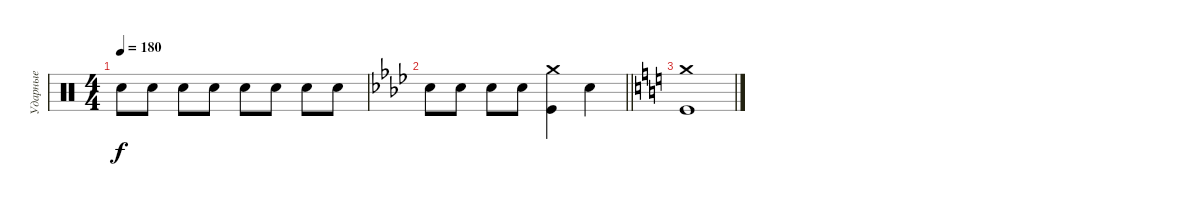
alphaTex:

\track ("Ударные" "Ударные") {instrument percussion}
\staff {score}
\articulation defaults
\ts (4 4)
\tempo 180
\clef neutral
\ks c "Electric Snare (hit)".8{dy f} "Electric Snare (hit)".8 "Electric Snare (hit)".8 "Electric Snare (hit)".8 "Electric Snare (hit)".8 "Electric Snare (hit)".8 "Electric Snare (hit)".8 "Electric Snare (hit)".8
|
\barLineRight lightlight
\ks ab "Electric Snare (hit)".8 "Electric Snare (hit)".8 "Electric Snare (hit)".8 "Electric Snare (hit)".8
("Crash medium (hit)" "Kick (hit)").4 "Electric Snare (hit)".4 |
\ks c
("Crash medium (hit)" "Kick (hit)").1
